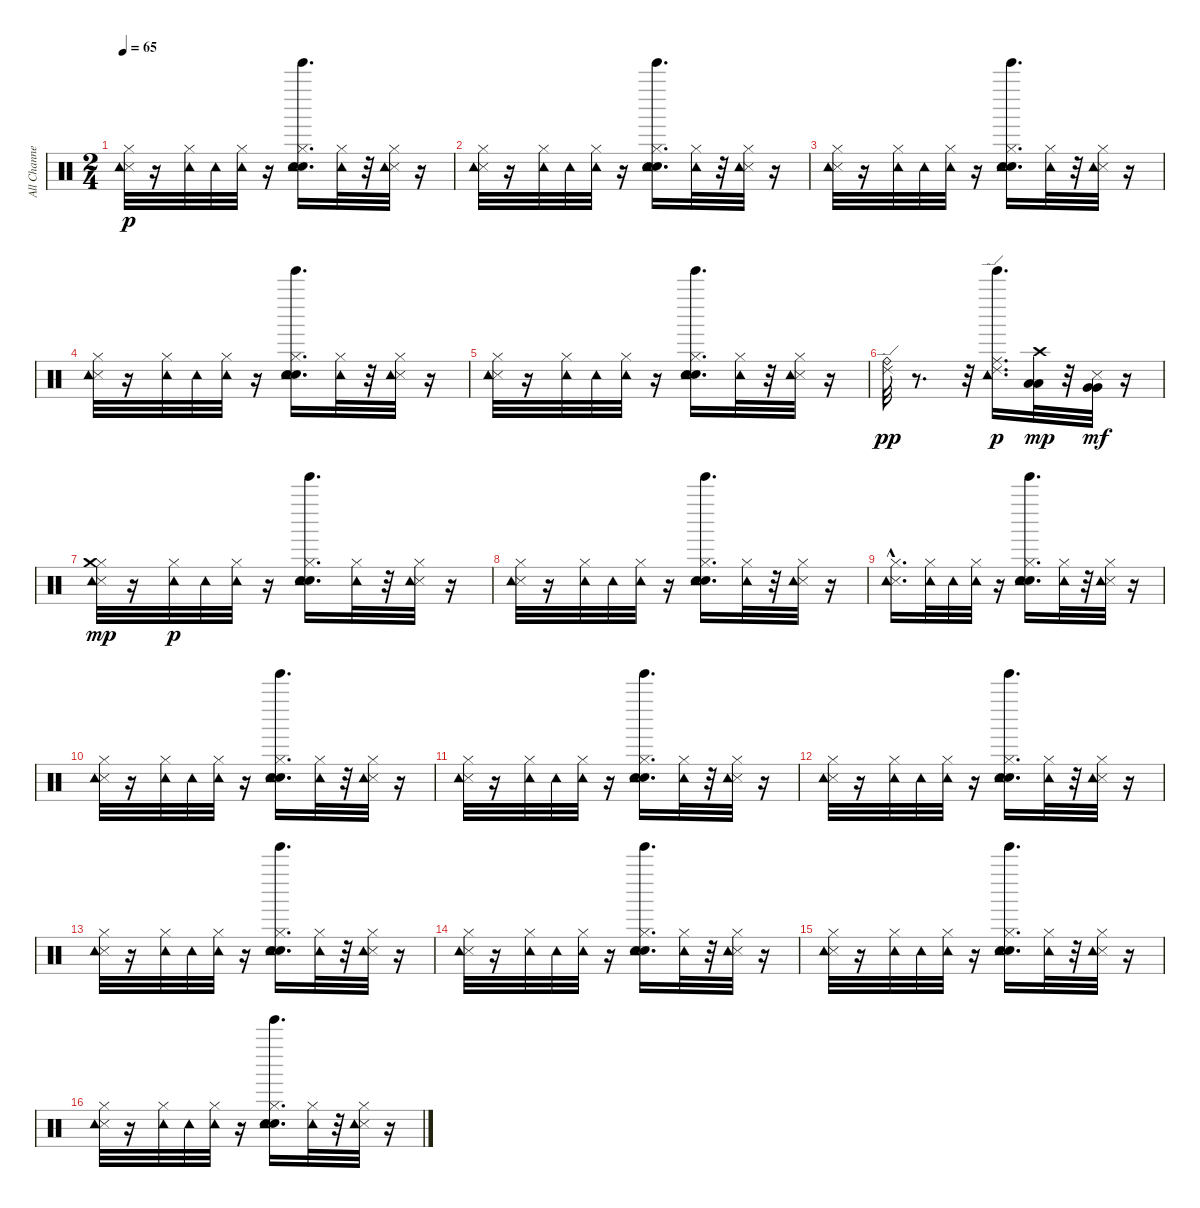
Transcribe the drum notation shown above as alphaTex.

\track ("All Channels*merged" "All Channe") {instrument percussion}
\staff {score}
\articulation defaults
\ts (2 4)
\tempo 65
\clef neutral
\ks c
("Metronome (hit)" "Hi-Hat (closed)" "Tambourine (hit)").32{dy p} r.16 ("Hi-Hat (closed)" "Tambourine (hit)").32 "Tambourine (hit)".32 ("Hi-Hat (closed)" "Tambourine (hit)").32 r.16 ("Metronome (bell)" "Electric Snare (hit)" "Hi-Hat (closed)" "Tambourine (hit)" "Tinkle Bell (hit)").16{d} ("Hi-Hat (closed)" "Tambourine (hit)").32 r.32 ("Metronome (hit)" "Hi-Hat (closed)" "Tambourine (hit)").32 r.16 |
("Metronome (hit)" "Hi-Hat (closed)" "Tambourine (hit)").32 r.16 ("Hi-Hat (closed)" "Tambourine (hit)").32 "Tambourine (hit)".32 ("Hi-Hat (closed)" "Tambourine (hit)").32 r.16 ("Metronome (bell)" "Electric Snare (hit)" "Hi-Hat (closed)" "Tambourine (hit)" "Tinkle Bell (hit)").16{d} ("Hi-Hat (closed)" "Tambourine (hit)").32 r.32 ("Metronome (hit)" "Hi-Hat (closed)" "Tambourine (hit)").32 r.16 |
("Metronome (hit)" "Hi-Hat (closed)" "Tambourine (hit)").32 r.16 ("Hi-Hat (closed)" "Tambourine (hit)").32 "Tambourine (hit)".32 ("Hi-Hat (closed)" "Tambourine (hit)").32 r.16 ("Metronome (bell)" "Electric Snare (hit)" "Hi-Hat (closed)" "Tambourine (hit)" "Tinkle Bell (hit)").16{d} ("Hi-Hat (closed)" "Tambourine (hit)").32 r.32 ("Metronome (hit)" "Hi-Hat (closed)" "Tambourine (hit)").32 r.16 |
("Metronome (hit)" "Hi-Hat (closed)" "Tambourine (hit)").32 r.16 ("Hi-Hat (closed)" "Tambourine (hit)").32 "Tambourine (hit)".32 ("Hi-Hat (closed)" "Tambourine (hit)").32 r.16 ("Metronome (bell)" "Electric Snare (hit)" "Hi-Hat (closed)" "Tambourine (hit)" "Tinkle Bell (hit)").16{d} ("Hi-Hat (closed)" "Tambourine (hit)").32 r.32 ("Metronome (hit)" "Hi-Hat (closed)" "Tambourine (hit)").32 r.16 |
("Metronome (hit)" "Hi-Hat (closed)" "Tambourine (hit)").32 r.16 ("Hi-Hat (closed)" "Tambourine (hit)").32 "Tambourine (hit)".32 ("Hi-Hat (closed)" "Tambourine (hit)").32 r.16 ("Metronome (bell)" "Electric Snare (hit)" "Hi-Hat (closed)" "Tambourine (hit)" "Tinkle Bell (hit)").16{d} ("Hi-Hat (closed)" "Tambourine (hit)").32 r.32 ("Metronome (hit)" "Hi-Hat (closed)" "Tambourine (hit)").32 r.16 |
("Ride (bell)" "Ride (edge) 2").32{dy pp} r.8{d} r.32 ("Ride (middle)" "Tambourine (hit)" "Ride (edge) 2" "Tinkle Bell (hit)").16{d dy p} ("Low Tom (hit)" "Low Tom (hit)" "Crash high (hit)").32{dy mp} r.32 ("Metronome (hit)" "Very Low Tom (hit)" "Very Low Tom (hit)").32{dy mf} r.16 |
("Metronome (hit)" "Hi-Hat (closed)" "Tambourine (hit)" "Crash medium (hit)").32{dy mp} r.16 ("Hi-Hat (closed)" "Tambourine (hit)").32{dy p} "Tambourine (hit)".32 ("Hi-Hat (closed)" "Tambourine (hit)").32 r.16 ("Metronome (bell)" "Electric Snare (hit)" "Hi-Hat (closed)" "Tambourine (hit)" "Tinkle Bell (hit)").16{d} ("Hi-Hat (closed)" "Tambourine (hit)").32 r.32 ("Metronome (hit)" "Hi-Hat (closed)" "Tambourine (hit)").32 r.16 |
("Metronome (hit)" "Hi-Hat (closed)" "Tambourine (hit)").32 r.16 ("Hi-Hat (closed)" "Tambourine (hit)").32 "Tambourine (hit)".32 ("Hi-Hat (closed)" "Tambourine (hit)").32 r.16 ("Metronome (bell)" "Electric Snare (hit)" "Hi-Hat (closed)" "Tambourine (hit)" "Tinkle Bell (hit)").16{d} ("Hi-Hat (closed)" "Tambourine (hit)").32 r.32 ("Metronome (hit)" "Hi-Hat (closed)" "Tambourine (hit)").32 r.16 |
("Metronome (hit)" "Hi-Hat (closed)"{hac} "Tambourine (hit)").16{d} ("Hi-Hat (closed)" "Tambourine (hit)").32 "Tambourine (hit)".32 ("Hi-Hat (closed)" "Tambourine (hit)").32 r.16 ("Metronome (bell)" "Electric Snare (hit)" "Hi-Hat (closed)" "Tambourine (hit)" "Tinkle Bell (hit)").16{d} ("Hi-Hat (closed)" "Tambourine (hit)").32 r.32 ("Metronome (hit)" "Hi-Hat (closed)" "Tambourine (hit)").32 r.16 |
("Metronome (hit)" "Hi-Hat (closed)" "Tambourine (hit)").32 r.16 ("Hi-Hat (closed)" "Tambourine (hit)").32 "Tambourine (hit)".32 ("Hi-Hat (closed)" "Tambourine (hit)").32 r.16 ("Metronome (bell)" "Electric Snare (hit)" "Hi-Hat (closed)" "Tambourine (hit)" "Tinkle Bell (hit)").16{d} ("Hi-Hat (closed)" "Tambourine (hit)").32 r.32 ("Metronome (hit)" "Hi-Hat (closed)" "Tambourine (hit)").32 r.16 |
("Metronome (hit)" "Hi-Hat (closed)" "Tambourine (hit)").32 r.16 ("Hi-Hat (closed)" "Tambourine (hit)").32 "Tambourine (hit)".32 ("Hi-Hat (closed)" "Tambourine (hit)").32 r.16 ("Metronome (bell)" "Electric Snare (hit)" "Hi-Hat (closed)" "Tambourine (hit)" "Tinkle Bell (hit)").16{d} ("Hi-Hat (closed)" "Tambourine (hit)").32 r.32 ("Metronome (hit)" "Hi-Hat (closed)" "Tambourine (hit)").32 r.16 |
("Metronome (hit)" "Hi-Hat (closed)" "Tambourine (hit)").32 r.16 ("Hi-Hat (closed)" "Tambourine (hit)").32 "Tambourine (hit)".32 ("Hi-Hat (closed)" "Tambourine (hit)").32 r.16 ("Metronome (bell)" "Electric Snare (hit)" "Hi-Hat (closed)" "Tambourine (hit)" "Tinkle Bell (hit)").16{d} ("Hi-Hat (closed)" "Tambourine (hit)").32 r.32 ("Metronome (hit)" "Hi-Hat (closed)" "Tambourine (hit)").32 r.16 |
("Metronome (hit)" "Hi-Hat (closed)" "Tambourine (hit)").32 r.16 ("Hi-Hat (closed)" "Tambourine (hit)").32 "Tambourine (hit)".32 ("Hi-Hat (closed)" "Tambourine (hit)").32 r.16 ("Metronome (bell)" "Electric Snare (hit)" "Hi-Hat (closed)" "Tambourine (hit)" "Tinkle Bell (hit)").16{d} ("Hi-Hat (closed)" "Tambourine (hit)").32 r.32 ("Metronome (hit)" "Hi-Hat (closed)" "Tambourine (hit)").32 r.16 |
("Metronome (hit)" "Hi-Hat (closed)" "Tambourine (hit)").32 r.16 ("Hi-Hat (closed)" "Tambourine (hit)").32 "Tambourine (hit)".32 ("Hi-Hat (closed)" "Tambourine (hit)").32 r.16 ("Metronome (bell)" "Electric Snare (hit)" "Hi-Hat (closed)" "Tambourine (hit)" "Tinkle Bell (hit)").16{d} ("Hi-Hat (closed)" "Tambourine (hit)").32 r.32 ("Metronome (hit)" "Hi-Hat (closed)" "Tambourine (hit)").32 r.16 |
("Metronome (hit)" "Hi-Hat (closed)" "Tambourine (hit)").32 r.16 ("Hi-Hat (closed)" "Tambourine (hit)").32 "Tambourine (hit)".32 ("Hi-Hat (closed)" "Tambourine (hit)").32 r.16 ("Metronome (bell)" "Electric Snare (hit)" "Hi-Hat (closed)" "Tambourine (hit)" "Tinkle Bell (hit)").16{d} ("Hi-Hat (closed)" "Tambourine (hit)").32 r.32 ("Metronome (hit)" "Hi-Hat (closed)" "Tambourine (hit)").32 r.16 |
("Metronome (hit)" "Hi-Hat (closed)" "Tambourine (hit)").32 r.16 ("Hi-Hat (closed)" "Tambourine (hit)").32 "Tambourine (hit)".32 ("Hi-Hat (closed)" "Tambourine (hit)").32 r.16 ("Metronome (bell)" "Electric Snare (hit)" "Hi-Hat (closed)" "Tambourine (hit)" "Tinkle Bell (hit)").16{d} ("Hi-Hat (closed)" "Tambourine (hit)").32 r.32 ("Metronome (hit)" "Hi-Hat (closed)" "Tambourine (hit)").32 r.16
